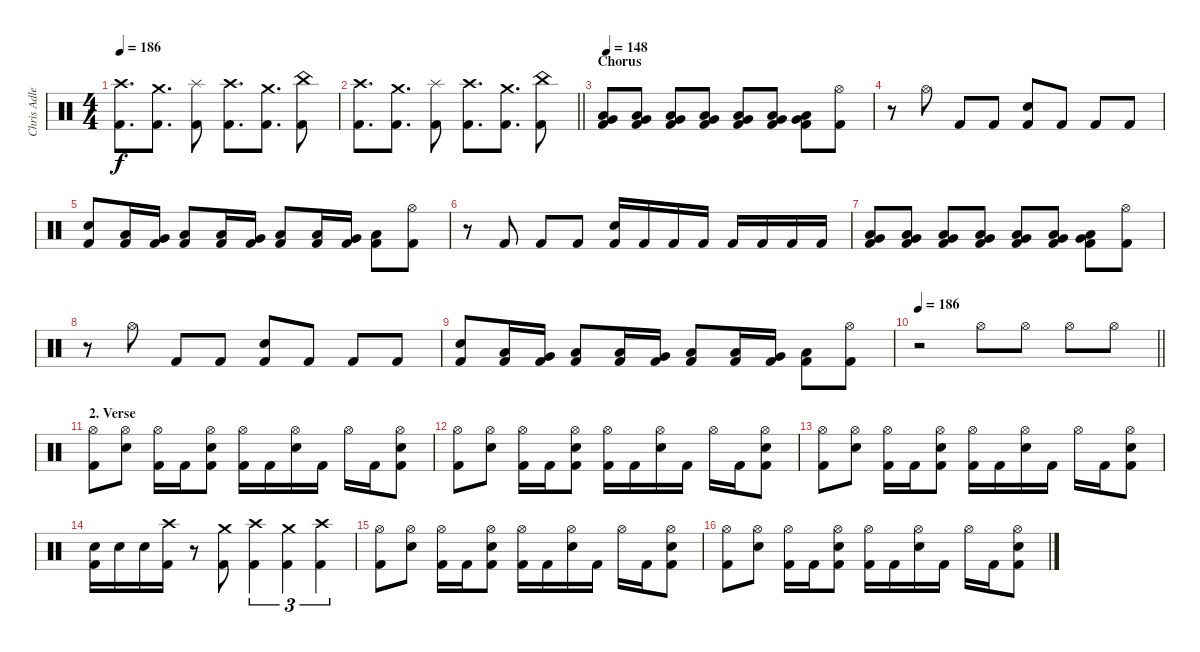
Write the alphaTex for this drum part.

\track ("Chris Adler (Drums)" "Chris Adle") {instrument percussion}
\staff {score}
\articulation defaults
\ts (4 4)
\tempo 186
\clef neutral
\ks c
("Crash high (hit)" "Kick (hit) 2").8{d dy f} ("Crash medium (hit)" "Kick (hit) 2").8{d} ("Splash (hit)" "Kick (hit) 2").8 ("Crash high (hit)" "Kick (hit) 2").8{d} ("Crash medium (hit)" "Kick (hit) 2").8{d} ("China (hit)" "Kick (hit) 2").8 |
\barLineRight lightlight
("Crash high (hit)" "Kick (hit) 2").8{d} ("Crash medium (hit)" "Kick (hit) 2").8{d} ("Splash (hit)" "Kick (hit) 2").8 ("Crash high (hit)" "Kick (hit) 2").8{d} ("Crash medium (hit)" "Kick (hit) 2").8{d} ("China (hit)" "Kick (hit) 2").8 |
\section ("" "Chorus")
\tempo 148
("Very Low Tom (hit)" "Low Floor Tom (hit)" "Kick (hit) 2").8 ("Very Low Tom (hit)" "Low Floor Tom (hit)" "Kick (hit) 2").8 ("Very Low Tom (hit)" "Low Floor Tom (hit)" "Kick (hit) 2").8 ("Very Low Tom (hit)" "Low Floor Tom (hit)" "Kick (hit) 2").8 ("Very Low Tom (hit)" "Low Floor Tom (hit)" "Kick (hit) 2").8 ("Very Low Tom (hit)" "Low Floor Tom (hit)" "Kick (hit) 2").8 ("Very Low Tom (hit)" "Low Floor Tom (hit)" "Kick (hit) 2").8 ("Hi-Hat (open)" "Kick (hit) 2").8 |
r.8 "Hi-Hat (open)".8 "Kick (hit) 2".8 "Kick (hit) 2".8 ("Snare (hit) 2" "Kick (hit) 2").8 "Kick (hit) 2".8 "Kick (hit) 2".8 "Kick (hit) 2".8 |
("Snare (hit) 2" "Kick (hit) 2").8 ("Low Tom (hit)" "Kick (hit) 2").16 ("Very Low Tom (hit)" "Kick (hit) 2").16 ("Low Floor Tom (hit)" "Kick (hit) 2").8 ("Low Tom (hit)" "Kick (hit) 2").16 ("Very Low Tom (hit)" "Kick (hit) 2").16 ("Low Floor Tom (hit)" "Kick (hit) 2").8 ("Low Tom (hit)" "Kick (hit) 2").16 ("Very Low Tom (hit)" "Kick (hit) 2").16 ("Low Floor Tom (hit)" "Kick (hit) 2").8 ("Hi-Hat (open)" "Kick (hit) 2").8 |
r.8 "Kick (hit) 2".8 "Kick (hit) 2".8 "Kick (hit) 2".8 ("Snare (hit) 2" "Kick (hit) 2").16 "Kick (hit) 2".16 "Kick (hit) 2".16 "Kick (hit) 2".16 "Kick (hit) 2".16 "Kick (hit) 2".16 "Kick (hit) 2".16 "Kick (hit) 2".16 |
("Very Low Tom (hit)" "Low Floor Tom (hit)" "Kick (hit) 2").8 ("Very Low Tom (hit)" "Low Floor Tom (hit)" "Kick (hit) 2").8 ("Very Low Tom (hit)" "Low Floor Tom (hit)" "Kick (hit) 2").8 ("Very Low Tom (hit)" "Low Floor Tom (hit)" "Kick (hit) 2").8 ("Very Low Tom (hit)" "Low Floor Tom (hit)" "Kick (hit) 2").8 ("Very Low Tom (hit)" "Low Floor Tom (hit)" "Kick (hit) 2").8 ("Very Low Tom (hit)" "Low Floor Tom (hit)" "Kick (hit) 2").8 ("Hi-Hat (open)" "Kick (hit) 2").8 |
r.8 "Hi-Hat (open)".8 "Kick (hit) 2".8 "Kick (hit) 2".8 ("Snare (hit) 2" "Kick (hit) 2").8 "Kick (hit) 2".8 "Kick (hit) 2".8 "Kick (hit) 2".8 |
("Snare (hit) 2" "Kick (hit) 2").8 ("Low Tom (hit)" "Kick (hit) 2").16 ("Very Low Tom (hit)" "Kick (hit) 2").16 ("Low Floor Tom (hit)" "Kick (hit) 2").8 ("Low Tom (hit)" "Kick (hit) 2").16 ("Very Low Tom (hit)" "Kick (hit) 2").16 ("Low Floor Tom (hit)" "Kick (hit) 2").8 ("Low Tom (hit)" "Kick (hit) 2").16 ("Very Low Tom (hit)" "Kick (hit) 2").16 ("Low Floor Tom (hit)" "Kick (hit) 2").8 ("Hi-Hat (open)" "Kick (hit) 2").8 |
\tempo 186
\barLineRight lightlight
r.2 "Hi-Hat (open)".8 "Hi-Hat (open)".8 "Hi-Hat (open)".8 "Hi-Hat (open)".8 |
\section ("" "2. Verse")
("Hi-Hat (open)" "Kick (hit) 2").8 ("Hi-Hat (open)" "Snare (hit) 2").8 ("Hi-Hat (open)" "Kick (hit) 2").16 "Kick (hit) 2".16 ("Hi-Hat (open)" "Snare (hit) 2" "Kick (hit) 2").8 ("Hi-Hat (open)" "Kick (hit) 2").16 "Kick (hit) 2".16 ("Hi-Hat (open)" "Snare (hit) 2").16 "Kick (hit) 2".16 "Hi-Hat (open)".16 "Kick (hit) 2".16 ("Hi-Hat (open)" "Snare (hit) 2" "Kick (hit) 2").8 |
("Hi-Hat (open)" "Kick (hit) 2").8 ("Hi-Hat (open)" "Snare (hit) 2").8 ("Hi-Hat (open)" "Kick (hit) 2").16 "Kick (hit) 2".16 ("Hi-Hat (open)" "Snare (hit) 2" "Kick (hit) 2").8 ("Hi-Hat (open)" "Kick (hit) 2").16 "Kick (hit) 2".16 ("Hi-Hat (open)" "Snare (hit) 2").16 "Kick (hit) 2".16 "Hi-Hat (open)".16 "Kick (hit) 2".16 ("Hi-Hat (open)" "Snare (hit) 2" "Kick (hit) 2").8 |
("Hi-Hat (open)" "Kick (hit) 2").8 ("Hi-Hat (open)" "Snare (hit) 2").8 ("Hi-Hat (open)" "Kick (hit) 2").16 "Kick (hit) 2".16 ("Hi-Hat (open)" "Snare (hit) 2" "Kick (hit) 2").8 ("Hi-Hat (open)" "Kick (hit) 2").16 "Kick (hit) 2".16 ("Hi-Hat (open)" "Snare (hit) 2").16 "Kick (hit) 2".16 "Hi-Hat (open)".16 "Kick (hit) 2".16 ("Hi-Hat (open)" "Snare (hit) 2" "Kick (hit) 2").8 |
("Snare (hit) 2" "Kick (hit) 2").16 "Snare (hit) 2".16 "Snare (hit) 2".16 ("Crash high (hit)" "Kick (hit) 2").16 r.8 ("Crash medium (hit)" "Kick (hit) 2").8 ("Crash high (hit)" "Kick (hit) 2").4{tu (3 2)} ("Crash medium (hit)" "Kick (hit) 2").4{tu (3 2)} ("Crash high (hit)" "Kick (hit) 2").4{tu (3 2)} |
("Hi-Hat (open)" "Kick (hit) 2").8 ("Hi-Hat (open)" "Snare (hit) 2").8 ("Hi-Hat (open)" "Kick (hit) 2").16 "Kick (hit) 2".16 ("Hi-Hat (open)" "Snare (hit) 2" "Kick (hit) 2").8 ("Hi-Hat (open)" "Kick (hit) 2").16 "Kick (hit) 2".16 ("Hi-Hat (open)" "Snare (hit) 2").16 "Kick (hit) 2".16 "Hi-Hat (open)".16 "Kick (hit) 2".16 ("Hi-Hat (open)" "Snare (hit) 2" "Kick (hit) 2").8 |
("Hi-Hat (open)" "Kick (hit) 2").8 ("Hi-Hat (open)" "Snare (hit) 2").8 ("Hi-Hat (open)" "Kick (hit) 2").16 "Kick (hit) 2".16 ("Hi-Hat (open)" "Snare (hit) 2" "Kick (hit) 2").8 ("Hi-Hat (open)" "Kick (hit) 2").16 "Kick (hit) 2".16 ("Hi-Hat (open)" "Snare (hit) 2").16 "Kick (hit) 2".16 "Hi-Hat (open)".16 "Kick (hit) 2".16 ("Hi-Hat (open)" "Snare (hit) 2" "Kick (hit) 2").8
